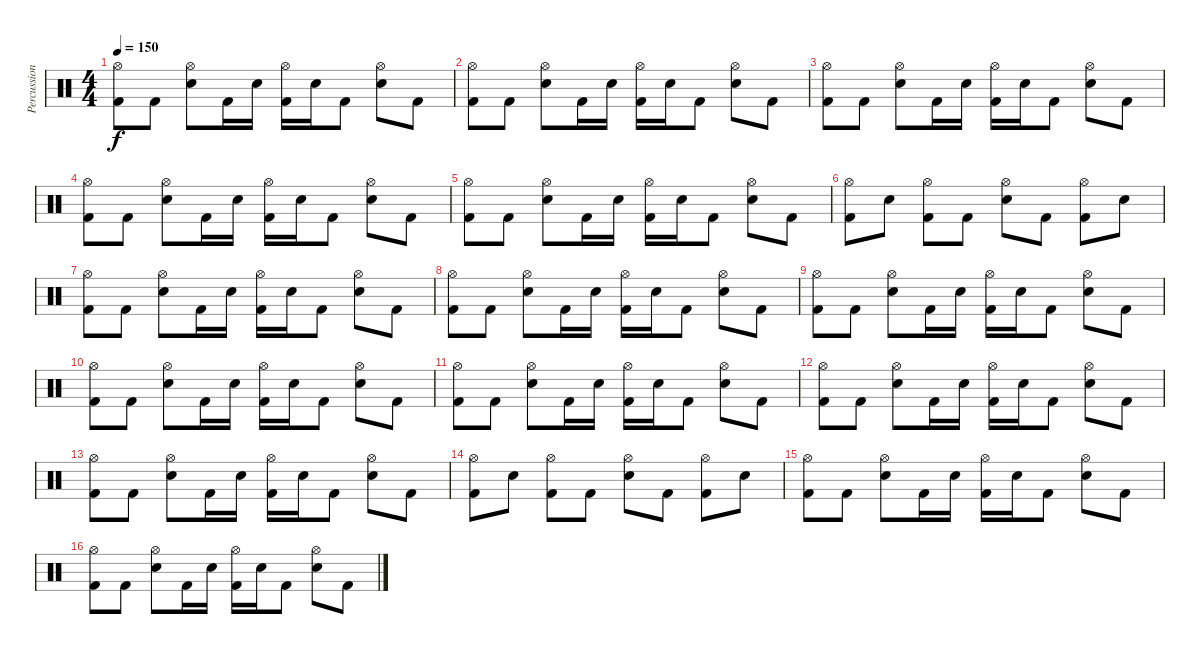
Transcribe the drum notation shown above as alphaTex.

\track ("Percussion" "Percussion") {instrument percussion}
\staff {score}
\articulation defaults
\ts (4 4)
\tempo 150
\clef neutral
\ks c
("Hi-Hat (open)" "Kick (hit) 2").8{dy f} "Kick (hit) 2".8 ("Hi-Hat (open)" "Electric Snare (hit)").8 "Kick (hit) 2".16 "Electric Snare (hit)".16 ("Hi-Hat (open)" "Kick (hit) 2").16 "Electric Snare (hit)".16 "Kick (hit) 2".8 ("Hi-Hat (open)" "Electric Snare (hit)").8 "Kick (hit) 2".8 |
("Hi-Hat (open)" "Kick (hit) 2").8 "Kick (hit) 2".8 ("Hi-Hat (open)" "Electric Snare (hit)").8 "Kick (hit) 2".16 "Electric Snare (hit)".16 ("Hi-Hat (open)" "Kick (hit) 2").16 "Electric Snare (hit)".16 "Kick (hit) 2".8 ("Hi-Hat (open)" "Electric Snare (hit)").8 "Kick (hit) 2".8 |
("Hi-Hat (open)" "Kick (hit) 2").8 "Kick (hit) 2".8 ("Hi-Hat (open)" "Electric Snare (hit)").8 "Kick (hit) 2".16 "Electric Snare (hit)".16 ("Hi-Hat (open)" "Kick (hit) 2").16 "Electric Snare (hit)".16 "Kick (hit) 2".8 ("Hi-Hat (open)" "Electric Snare (hit)").8 "Kick (hit) 2".8 |
("Hi-Hat (open)" "Kick (hit) 2").8 "Kick (hit) 2".8 ("Hi-Hat (open)" "Electric Snare (hit)").8 "Kick (hit) 2".16 "Electric Snare (hit)".16 ("Hi-Hat (open)" "Kick (hit) 2").16 "Electric Snare (hit)".16 "Kick (hit) 2".8 ("Hi-Hat (open)" "Electric Snare (hit)").8 "Kick (hit) 2".8 |
("Hi-Hat (open)" "Kick (hit) 2").8 "Kick (hit) 2".8 ("Hi-Hat (open)" "Electric Snare (hit)").8 "Kick (hit) 2".16 "Electric Snare (hit)".16 ("Hi-Hat (open)" "Kick (hit) 2").16 "Electric Snare (hit)".16 "Kick (hit) 2".8 ("Hi-Hat (open)" "Electric Snare (hit)").8 "Kick (hit) 2".8 |
("Hi-Hat (open)" "Kick (hit) 2").8 "Electric Snare (hit)".8 ("Hi-Hat (open)" "Kick (hit) 2").8 "Kick (hit) 2".8 ("Hi-Hat (open)" "Electric Snare (hit)").8 "Kick (hit) 2".8 ("Hi-Hat (open)" "Kick (hit) 2").8 "Electric Snare (hit)".8 |
("Hi-Hat (open)" "Kick (hit) 2").8 "Kick (hit) 2".8 ("Hi-Hat (open)" "Electric Snare (hit)").8 "Kick (hit) 2".16 "Electric Snare (hit)".16 ("Hi-Hat (open)" "Kick (hit) 2").16 "Electric Snare (hit)".16 "Kick (hit) 2".8 ("Hi-Hat (open)" "Electric Snare (hit)").8 "Kick (hit) 2".8 |
("Hi-Hat (open)" "Kick (hit) 2").8 "Kick (hit) 2".8 ("Hi-Hat (open)" "Electric Snare (hit)").8 "Kick (hit) 2".16 "Electric Snare (hit)".16 ("Hi-Hat (open)" "Kick (hit) 2").16 "Electric Snare (hit)".16 "Kick (hit) 2".8 ("Hi-Hat (open)" "Electric Snare (hit)").8 "Kick (hit) 2".8 |
("Hi-Hat (open)" "Kick (hit) 2").8 "Kick (hit) 2".8 ("Hi-Hat (open)" "Electric Snare (hit)").8 "Kick (hit) 2".16 "Electric Snare (hit)".16 ("Hi-Hat (open)" "Kick (hit) 2").16 "Electric Snare (hit)".16 "Kick (hit) 2".8 ("Hi-Hat (open)" "Electric Snare (hit)").8 "Kick (hit) 2".8 |
("Hi-Hat (open)" "Kick (hit) 2").8 "Kick (hit) 2".8 ("Hi-Hat (open)" "Electric Snare (hit)").8 "Kick (hit) 2".16 "Electric Snare (hit)".16 ("Hi-Hat (open)" "Kick (hit) 2").16 "Electric Snare (hit)".16 "Kick (hit) 2".8 ("Hi-Hat (open)" "Electric Snare (hit)").8 "Kick (hit) 2".8 |
("Hi-Hat (open)" "Kick (hit) 2").8 "Kick (hit) 2".8 ("Hi-Hat (open)" "Electric Snare (hit)").8 "Kick (hit) 2".16 "Electric Snare (hit)".16 ("Hi-Hat (open)" "Kick (hit) 2").16 "Electric Snare (hit)".16 "Kick (hit) 2".8 ("Hi-Hat (open)" "Electric Snare (hit)").8 "Kick (hit) 2".8 |
("Hi-Hat (open)" "Kick (hit) 2").8 "Kick (hit) 2".8 ("Hi-Hat (open)" "Electric Snare (hit)").8 "Kick (hit) 2".16 "Electric Snare (hit)".16 ("Hi-Hat (open)" "Kick (hit) 2").16 "Electric Snare (hit)".16 "Kick (hit) 2".8 ("Hi-Hat (open)" "Electric Snare (hit)").8 "Kick (hit) 2".8 |
("Hi-Hat (open)" "Kick (hit) 2").8 "Kick (hit) 2".8 ("Hi-Hat (open)" "Electric Snare (hit)").8 "Kick (hit) 2".16 "Electric Snare (hit)".16 ("Hi-Hat (open)" "Kick (hit) 2").16 "Electric Snare (hit)".16 "Kick (hit) 2".8 ("Hi-Hat (open)" "Electric Snare (hit)").8 "Kick (hit) 2".8 |
("Hi-Hat (open)" "Kick (hit) 2").8 "Electric Snare (hit)".8 ("Hi-Hat (open)" "Kick (hit) 2").8 "Kick (hit) 2".8 ("Hi-Hat (open)" "Electric Snare (hit)").8 "Kick (hit) 2".8 ("Hi-Hat (open)" "Kick (hit) 2").8 "Electric Snare (hit)".8 |
("Hi-Hat (open)" "Kick (hit) 2").8 "Kick (hit) 2".8 ("Hi-Hat (open)" "Electric Snare (hit)").8 "Kick (hit) 2".16 "Electric Snare (hit)".16 ("Hi-Hat (open)" "Kick (hit) 2").16 "Electric Snare (hit)".16 "Kick (hit) 2".8 ("Hi-Hat (open)" "Electric Snare (hit)").8 "Kick (hit) 2".8 |
("Hi-Hat (open)" "Kick (hit) 2").8 "Kick (hit) 2".8 ("Hi-Hat (open)" "Electric Snare (hit)").8 "Kick (hit) 2".16 "Electric Snare (hit)".16 ("Hi-Hat (open)" "Kick (hit) 2").16 "Electric Snare (hit)".16 "Kick (hit) 2".8 ("Hi-Hat (open)" "Electric Snare (hit)").8 "Kick (hit) 2".8
